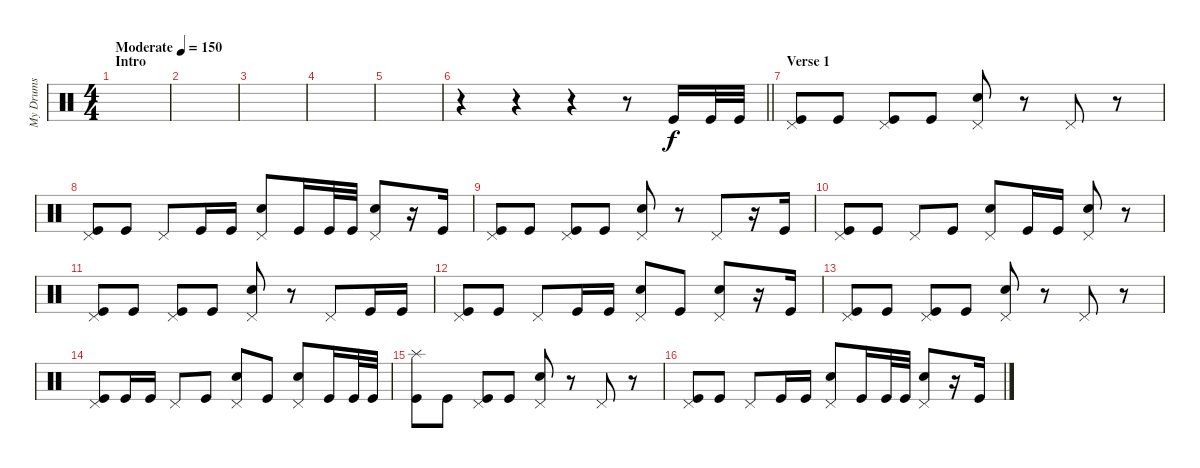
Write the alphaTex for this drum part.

\track ("My Drums" "My Drums") {instrument percussion}
\staff {score}
\articulation defaults
\ts (4 4)
\section ("" "Intro")
\tempo (150 "Moderate")
\clef neutral
\ks c
|
|
|
|
|
\barLineRight lightlight
r.4 r.4 r.4 r.8 "Kick (hit)".16 "Kick (hit)".32 "Kick (hit)".32 |
\section ("" "Verse 1")
("Pedal Hi-Hat (hit)" "Kick (hit)").8 "Kick (hit)".8 ("Pedal Hi-Hat (hit)" "Kick (hit)").8 "Kick (hit)".8 ("Pedal Hi-Hat (hit)" "Snare (hit) 2").8 r.8 "Pedal Hi-Hat (hit)".8 r.8 |
("Pedal Hi-Hat (hit)" "Kick (hit)").8 "Kick (hit)".8 "Pedal Hi-Hat (hit)".8 "Kick (hit)".16 "Kick (hit)".16 ("Pedal Hi-Hat (hit)" "Snare (hit) 2").8 "Kick (hit)".16 "Kick (hit)".32 "Kick (hit)".32 ("Pedal Hi-Hat (hit)" "Snare (hit) 2").8 r.16 "Kick (hit)".16 |
("Pedal Hi-Hat (hit)" "Kick (hit)").8 "Kick (hit)".8 ("Pedal Hi-Hat (hit)" "Kick (hit)").8 "Kick (hit)".8 ("Pedal Hi-Hat (hit)" "Snare (hit) 2").8 r.8 "Pedal Hi-Hat (hit)".8 r.16 "Kick (hit)".16 |
("Pedal Hi-Hat (hit)" "Kick (hit)").8 "Kick (hit)".8 "Pedal Hi-Hat (hit)".8 "Kick (hit)".8 ("Pedal Hi-Hat (hit)" "Snare (hit) 2").8 "Kick (hit)".16 "Kick (hit)".16 ("Pedal Hi-Hat (hit)" "Snare (hit) 2").8 r.8 |
("Pedal Hi-Hat (hit)" "Kick (hit)").8 "Kick (hit)".8 ("Pedal Hi-Hat (hit)" "Kick (hit)").8 "Kick (hit)".8 ("Pedal Hi-Hat (hit)" "Snare (hit) 2").8 r.8 "Pedal Hi-Hat (hit)".8 "Kick (hit)".16 "Kick (hit)".16 |
("Pedal Hi-Hat (hit)" "Kick (hit)").8 "Kick (hit)".8 "Pedal Hi-Hat (hit)".8 "Kick (hit)".16 "Kick (hit)".16 ("Pedal Hi-Hat (hit)" "Snare (hit) 2").8 "Kick (hit)".8 ("Pedal Hi-Hat (hit)" "Snare (hit) 2").8 r.16 "Kick (hit)".16 |
("Pedal Hi-Hat (hit)" "Kick (hit)").8 "Kick (hit)".8 ("Pedal Hi-Hat (hit)" "Kick (hit)").8 "Kick (hit)".8 ("Pedal Hi-Hat (hit)" "Snare (hit) 2").8 r.8 "Pedal Hi-Hat (hit)".8 r.8 |
("Pedal Hi-Hat (hit)" "Kick (hit)").8 "Kick (hit)".16 "Kick (hit)".16 "Pedal Hi-Hat (hit)".8 "Kick (hit)".8 ("Pedal Hi-Hat (hit)" "Snare (hit) 2").8 "Kick (hit)".8 ("Pedal Hi-Hat (hit)" "Snare (hit) 2").8 "Kick (hit)".16 "Kick (hit)".32 "Kick (hit)".32 |
("Splash (hit)" "Kick (hit)").8 "Kick (hit)".8 ("Pedal Hi-Hat (hit)" "Kick (hit)").8 "Kick (hit)".8 ("Pedal Hi-Hat (hit)" "Snare (hit) 2").8 r.8 "Pedal Hi-Hat (hit)".8 r.8 |
("Pedal Hi-Hat (hit)" "Kick (hit)").8 "Kick (hit)".8 "Pedal Hi-Hat (hit)".8 "Kick (hit)".16 "Kick (hit)".16 ("Pedal Hi-Hat (hit)" "Snare (hit) 2").8 "Kick (hit)".16 "Kick (hit)".32 "Kick (hit)".32 ("Pedal Hi-Hat (hit)" "Snare (hit) 2").8 r.16 "Kick (hit)".16
